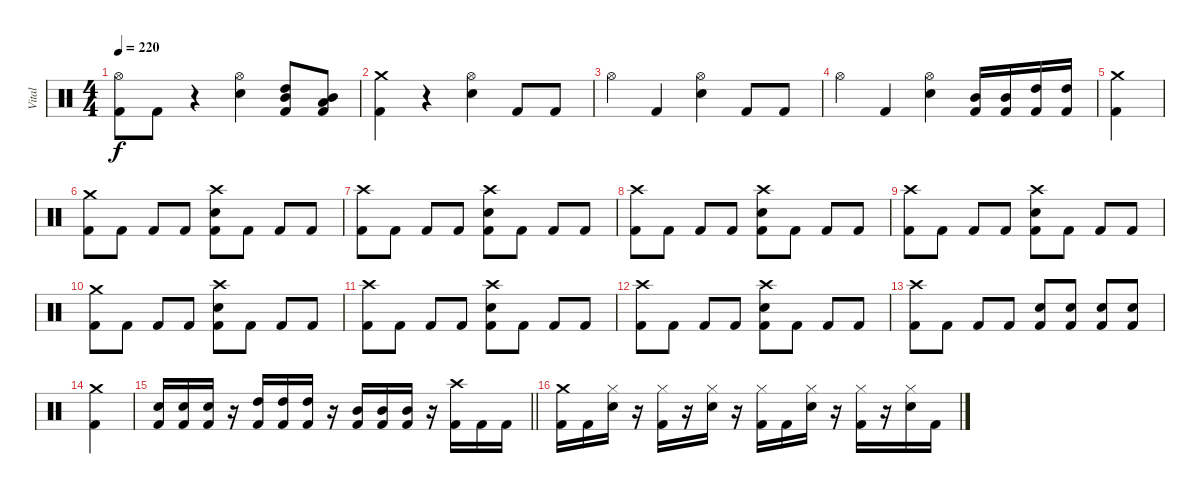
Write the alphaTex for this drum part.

\track ("Vital" "Vital") {instrument percussion}
\staff {score}
\articulation defaults
\ts (4 4)
\tempo 220
\clef neutral
\ks c
("Hi-Hat (open)" "Kick (hit) 2").8{dy f} "Kick (hit) 2".8 r.4 ("Hi-Hat (open)" "Snare (hit) 2").4 ("High Tom (hit)" "Mid Tom (hit)" "Kick (hit) 2").8 ("Mid Tom (hit)" "Low Tom (hit)" "Kick (hit) 2").8 |
("Crash medium (hit)" "Kick (hit) 2").4 r.4 ("Hi-Hat (open)" "Snare (hit) 2").4 "Kick (hit) 2".8 "Kick (hit) 2".8 |
"Hi-Hat (open)".4 "Kick (hit) 2".4 ("Hi-Hat (open)" "Snare (hit) 2").4 "Kick (hit) 2".8 "Kick (hit) 2".8 |
"Hi-Hat (open)".4 "Kick (hit) 2".4 ("Hi-Hat (open)" "Snare (hit) 2").4 ("Mid Tom (hit)" "Kick (hit) 2").16 ("Mid Tom (hit)" "Kick (hit) 2").16 ("High Tom (hit)" "Kick (hit) 2").16 ("High Tom (hit)" "Kick (hit) 2").16 |
("Crash medium (hit)" "Kick (hit) 2").4 |
("Crash medium (hit)" "Kick (hit) 2").8 "Kick (hit) 2".8 "Kick (hit) 2".8 "Kick (hit) 2".8 ("Crash high (hit)" "Snare (hit) 2" "Kick (hit) 2").8 "Kick (hit) 2".8 "Kick (hit) 2".8 "Kick (hit) 2".8 |
("Crash high (hit)" "Kick (hit) 2").8 "Kick (hit) 2".8 "Kick (hit) 2".8 "Kick (hit) 2".8 ("Crash high (hit)" "Snare (hit) 2" "Kick (hit) 2").8 "Kick (hit) 2".8 "Kick (hit) 2".8 "Kick (hit) 2".8 |
("Crash high (hit)" "Kick (hit) 2").8 "Kick (hit) 2".8 "Kick (hit) 2".8 "Kick (hit) 2".8 ("Crash high (hit)" "Snare (hit) 2" "Kick (hit) 2").8 "Kick (hit) 2".8 "Kick (hit) 2".8 "Kick (hit) 2".8 |
("Crash high (hit)" "Kick (hit) 2").8 "Kick (hit) 2".8 "Kick (hit) 2".8 "Kick (hit) 2".8 ("Crash high (hit)" "Snare (hit) 2" "Kick (hit) 2").8 "Kick (hit) 2".8 "Kick (hit) 2".8 "Kick (hit) 2".8 |
("Crash medium (hit)" "Kick (hit) 2").8 "Kick (hit) 2".8 "Kick (hit) 2".8 "Kick (hit) 2".8 ("Crash high (hit)" "Snare (hit) 2" "Kick (hit) 2").8 "Kick (hit) 2".8 "Kick (hit) 2".8 "Kick (hit) 2".8 |
("Crash high (hit)" "Kick (hit) 2").8 "Kick (hit) 2".8 "Kick (hit) 2".8 "Kick (hit) 2".8 ("Crash high (hit)" "Snare (hit) 2" "Kick (hit) 2").8 "Kick (hit) 2".8 "Kick (hit) 2".8 "Kick (hit) 2".8 |
("Crash high (hit)" "Kick (hit) 2").8 "Kick (hit) 2".8 "Kick (hit) 2".8 "Kick (hit) 2".8 ("Crash high (hit)" "Snare (hit) 2" "Kick (hit) 2").8 "Kick (hit) 2".8 "Kick (hit) 2".8 "Kick (hit) 2".8 |
("Crash high (hit)" "Kick (hit) 2").8 "Kick (hit) 2".8 "Kick (hit) 2".8 "Kick (hit) 2".8 ("Snare (hit) 2" "Kick (hit) 2").8 ("Snare (hit) 2" "Kick (hit) 2").8 ("Snare (hit) 2" "Kick (hit) 2").8 ("Snare (hit) 2" "Kick (hit) 2").8 |
("Crash medium (hit)" "Kick (hit) 2").4 |
\barLineRight lightlight
("Snare (hit) 2" "Kick (hit) 2").16 ("Snare (hit) 2" "Kick (hit) 2").16 ("Snare (hit) 2" "Kick (hit) 2").16 r.16 ("High Tom (hit)" "Kick (hit) 2").16 ("High Tom (hit)" "Kick (hit) 2").16 ("High Tom (hit)" "Kick (hit) 2").16 r.16 ("Mid Tom (hit)" "Kick (hit) 2").16 ("Mid Tom (hit)" "Kick (hit) 2").16 ("Mid Tom (hit)" "Kick (hit) 2").16 r.16 ("Crash high (hit)" "Kick (hit) 2").16 "Kick (hit) 2".16 "Kick (hit) 2".16 |
("Crash medium (hit)" "Kick (hit) 2").16 "Kick (hit) 2".16 ("Hi-Hat (closed)" "Snare (hit) 2").16 r.16 ("Hi-Hat (closed)" "Kick (hit) 2").16 r.16 ("Hi-Hat (closed)" "Snare (hit) 2").16 r.16 ("Hi-Hat (closed)" "Kick (hit) 2").16 "Kick (hit) 2".16 ("Hi-Hat (closed)" "Snare (hit) 2").16 r.16 ("Hi-Hat (closed)" "Kick (hit) 2").16 r.16 ("Hi-Hat (closed)" "Snare (hit) 2").16 "Kick (hit) 2".16
